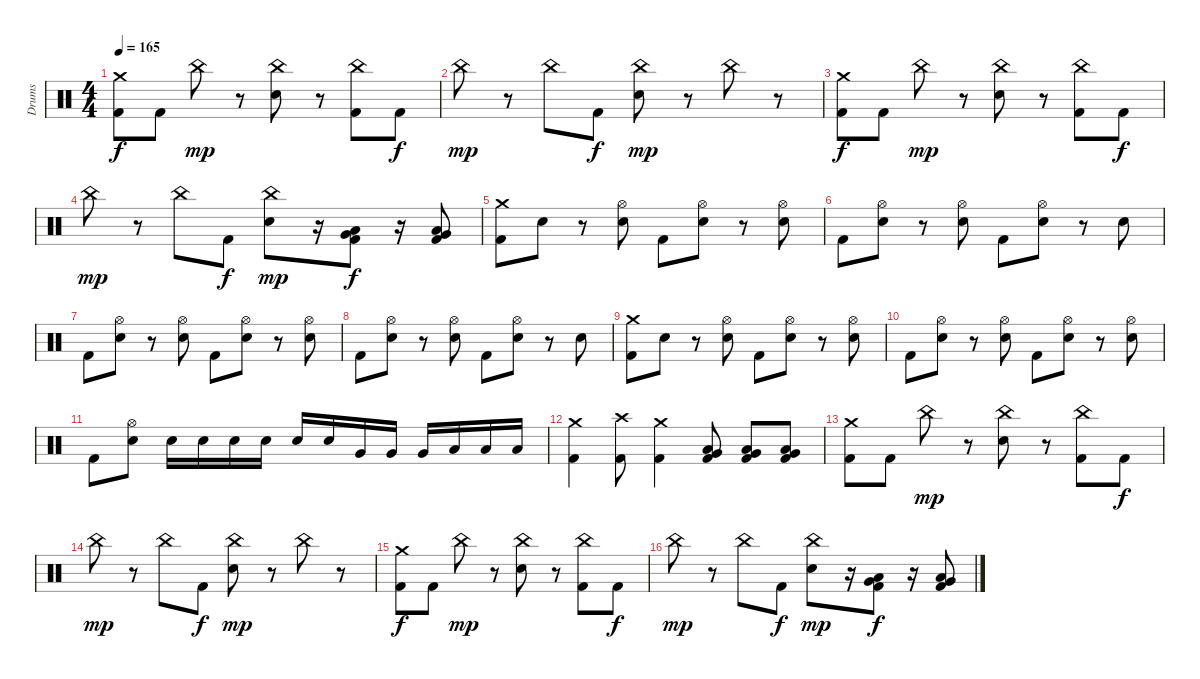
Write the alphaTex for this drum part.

\track ("Drums" "Drums") {instrument percussion}
\staff
\articulation defaults
\ts (4 4)
\tempo 165
\clef neutral
\ks c
("Crash medium (hit)" "Kick (hit) 2").8{dy f} "Kick (hit) 2".8 "China (hit)".8{dy mp} r.8 ("China (hit)" "Electric Snare (hit)").8 r.8 ("China (hit)" "Kick (hit) 2").8 "Kick (hit) 2".8{dy f} |
"China (hit)".8{dy mp} r.8 "China (hit)".8 "Kick (hit) 2".8{dy f} ("China (hit)" "Electric Snare (hit)").8{dy mp} r.8 "China (hit)".8 r.8 |
("Crash medium (hit)" "Kick (hit) 2").8{dy f} "Kick (hit) 2".8 "China (hit)".8{dy mp} r.8 ("China (hit)" "Electric Snare (hit)").8 r.8 ("China (hit)" "Kick (hit) 2").8 "Kick (hit) 2".8{dy f} |
"China (hit)".8{dy mp} r.8 "China (hit)".8 "Kick (hit) 2".8{dy f} ("China (hit)" "Electric Snare (hit)").8{dy mp} r.16 ("Low Floor Tom (hit)" "Very Low Tom (hit)" "Kick (hit) 2").8{dy f} r.16 ("Low Floor Tom (hit)" "Very Low Tom (hit)" "Kick (hit) 2").8 |
("Crash medium (hit)" "Kick (hit) 2").8 "Electric Snare (hit)".8 r.8 ("Hi-Hat (open)" "Electric Snare (hit)").8 "Kick (hit) 2".8 ("Hi-Hat (open)" "Electric Snare (hit)").8 r.8 ("Hi-Hat (open)" "Electric Snare (hit)").8 |
"Kick (hit) 2".8 ("Hi-Hat (open)" "Electric Snare (hit)").8 r.8 ("Hi-Hat (open)" "Electric Snare (hit)").8 "Kick (hit) 2".8 ("Hi-Hat (open)" "Electric Snare (hit)").8 r.8 "Electric Snare (hit)".8 |
"Kick (hit) 2".8 ("Hi-Hat (open)" "Electric Snare (hit)").8 r.8 ("Hi-Hat (open)" "Electric Snare (hit)").8 "Kick (hit) 2".8 ("Hi-Hat (open)" "Electric Snare (hit)").8 r.8 ("Hi-Hat (open)" "Electric Snare (hit)").8 |
"Kick (hit) 2".8 ("Hi-Hat (open)" "Electric Snare (hit)").8 r.8 ("Hi-Hat (open)" "Electric Snare (hit)").8 "Kick (hit) 2".8 ("Hi-Hat (open)" "Electric Snare (hit)").8 r.8 "Electric Snare (hit)".8 |
("Crash medium (hit)" "Kick (hit) 2").8 "Electric Snare (hit)".8 r.8 ("Hi-Hat (open)" "Electric Snare (hit)").8 "Kick (hit) 2".8 ("Hi-Hat (open)" "Electric Snare (hit)").8 r.8 ("Hi-Hat (open)" "Electric Snare (hit)").8 |
"Kick (hit) 2".8 ("Hi-Hat (open)" "Electric Snare (hit)").8 r.8 ("Hi-Hat (open)" "Electric Snare (hit)").8 "Kick (hit) 2".8 ("Hi-Hat (open)" "Electric Snare (hit)").8 r.8 ("Hi-Hat (open)" "Electric Snare (hit)").8 |
"Kick (hit) 2".8 ("Hi-Hat (open)" "Electric Snare (hit)").8 "Electric Snare (hit)".16 "Electric Snare (hit)".16 "Electric Snare (hit)".16 "Electric Snare (hit)".16 "Electric Snare (hit)".16 "Electric Snare (hit)".16 "Very Low Tom (hit)".16 "Very Low Tom (hit)".16 "Very Low Tom (hit)".16 "Low Floor Tom (hit)".16 "Low Floor Tom (hit)".16 "Low Floor Tom (hit)".16 |
("Crash medium (hit)" "Kick (hit) 2").4 ("Crash high (hit)" "Kick (hit) 2").8 ("Crash medium (hit)" "Kick (hit) 2").4 ("Very Low Tom (hit)" "Low Floor Tom (hit)" "Kick (hit) 2").8 ("Very Low Tom (hit)" "Low Floor Tom (hit)" "Kick (hit) 2").8 ("Very Low Tom (hit)" "Low Floor Tom (hit)" "Kick (hit) 2").8 |
("Crash medium (hit)" "Kick (hit) 2").8 "Kick (hit) 2".8 "China (hit)".8{dy mp} r.8 ("China (hit)" "Electric Snare (hit)").8 r.8 ("China (hit)" "Kick (hit) 2").8 "Kick (hit) 2".8{dy f} |
"China (hit)".8{dy mp} r.8 "China (hit)".8 "Kick (hit) 2".8{dy f} ("China (hit)" "Electric Snare (hit)").8{dy mp} r.8 "China (hit)".8 r.8 |
("Crash medium (hit)" "Kick (hit) 2").8{dy f} "Kick (hit) 2".8 "China (hit)".8{dy mp} r.8 ("China (hit)" "Electric Snare (hit)").8 r.8 ("China (hit)" "Kick (hit) 2").8 "Kick (hit) 2".8{dy f} |
"China (hit)".8{dy mp} r.8 "China (hit)".8 "Kick (hit) 2".8{dy f} ("China (hit)" "Electric Snare (hit)").8{dy mp} r.16 ("Low Floor Tom (hit)" "Very Low Tom (hit)" "Kick (hit) 2").8{dy f} r.16 ("Low Floor Tom (hit)" "Very Low Tom (hit)" "Kick (hit) 2").8
